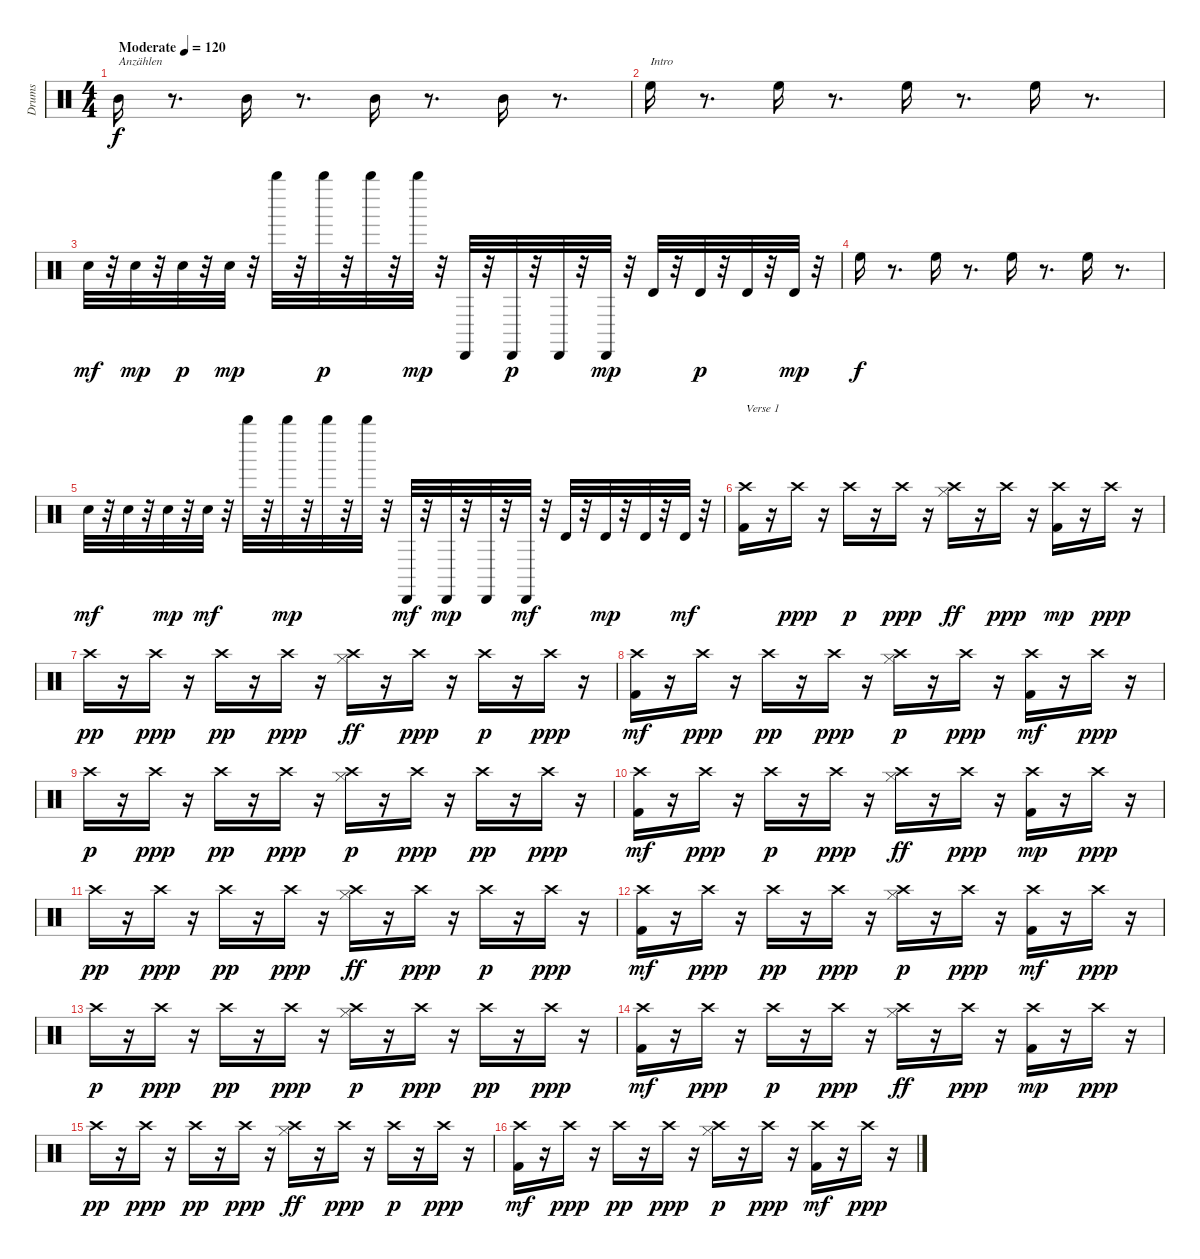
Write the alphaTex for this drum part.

\track ("Drums" "Drums") {instrument percussion}
\staff {score}
\articulation defaults
\ts (4 4)
\tempo (120 "Moderate")
\clef neutral
\ks c "Mid Tom (hit)".16{txt "Anzählen" dy f}
r.8{d} "Mid Tom (hit)".16 r.8{d} "Mid Tom (hit)".16 r.8{d} "Mid Tom (hit)".16 r.8{d} |
"High Floor Tom (hit)".16{txt "Intro"} r.8{d} "High Floor Tom (hit)".16 r.8{d} "High Floor Tom (hit)".16 r.8{d} "High Floor Tom (hit)".16 r.8{d} |
"Snare (hit) 2".32{dy mf} r.32 "Snare (hit) 2".32{dy mp} r.32 "Snare (hit) 2".32{dy p} r.32 "Snare (hit) 2".32{dy mp} r.32 "Whistle high (hit)".32 r.32 "Whistle high (hit)".32{dy p} r.32 "Whistle high (hit)".32 r.32 "Whistle high (hit)".32{dy mp} r.32 "Cabasa (hit)".32 r.32 "Cabasa (hit)".32{dy p} r.32 "Cabasa (hit)".32 r.32 "Cabasa (hit)".32{dy mp} r.32 "Timbale high (hit)".32 r.32 "Timbale high (hit)".32{dy p} r.32 "Timbale high (hit)".32 r.32 "Timbale high (hit)".32{dy mp} r.32 |
"High Floor Tom (hit)".16{dy f} r.8{d} "High Floor Tom (hit)".16 r.8{d} "High Floor Tom (hit)".16 r.8{d} "High Floor Tom (hit)".16 r.8{d} |
"Snare (hit) 2".32{dy mf} r.32 "Snare (hit) 2".32 r.32 "Snare (hit) 2".32{dy mp} r.32 "Snare (hit) 2".32{dy mf} r.32 "Whistle high (hit)".32 r.32 "Whistle high (hit)".32{dy mp} r.32 "Whistle high (hit)".32 r.32 "Whistle high (hit)".32 r.32 "Cabasa (hit)".32{dy mf} r.32 "Cabasa (hit)".32{dy mp} r.32 "Cabasa (hit)".32 r.32 "Cabasa (hit)".32{dy mf} r.32 "Timbale high (hit)".32 r.32 "Timbale high (hit)".32{dy mp} r.32 "Timbale high (hit)".32 r.32 "Timbale high (hit)".32{dy mf} r.32 |
("Crash high (hit)" "Kick (hit) 2").16{txt "Verse 1"} r.16 "Crash high (hit)".16{dy ppp} r.16 "Crash high (hit)".16{dy p} r.16 "Crash high (hit)".16{dy ppp} r.16 ("Crash high (hit)" "Hi-Hat (closed)").16{dy ff} r.16 "Crash high (hit)".16{dy ppp} r.16 ("Crash high (hit)" "Kick (hit) 2").16{dy mp} r.16 "Crash high (hit)".16{dy ppp} r.16 |
"Crash high (hit)".16{dy pp} r.16 "Crash high (hit)".16{dy ppp} r.16 "Crash high (hit)".16{dy pp} r.16 "Crash high (hit)".16{dy ppp} r.16 ("Crash high (hit)" "Hi-Hat (closed)").16{dy ff} r.16 "Crash high (hit)".16{dy ppp} r.16 "Crash high (hit)".16{dy p} r.16 "Crash high (hit)".16{dy ppp} r.16 |
("Crash high (hit)" "Kick (hit) 2").16{dy mf} r.16 "Crash high (hit)".16{dy ppp} r.16 "Crash high (hit)".16{dy pp} r.16 "Crash high (hit)".16{dy ppp} r.16 ("Hi-Hat (closed)" "Crash high (hit)").16{dy p} r.16 "Crash high (hit)".16{dy ppp} r.16 ("Crash high (hit)" "Kick (hit) 2").16{dy mf} r.16 "Crash high (hit)".16{dy ppp} r.16 |
"Crash high (hit)".16{dy p} r.16 "Crash high (hit)".16{dy ppp} r.16 "Crash high (hit)".16{dy pp} r.16 "Crash high (hit)".16{dy ppp} r.16 ("Hi-Hat (closed)" "Crash high (hit)").16{dy p} r.16 "Crash high (hit)".16{dy ppp} r.16 "Crash high (hit)".16{dy pp} r.16 "Crash high (hit)".16{dy ppp} r.16 |
("Crash high (hit)" "Kick (hit) 2").16{dy mf} r.16 "Crash high (hit)".16{dy ppp} r.16 "Crash high (hit)".16{dy p} r.16 "Crash high (hit)".16{dy ppp} r.16 ("Crash high (hit)" "Hi-Hat (closed)").16{dy ff} r.16 "Crash high (hit)".16{dy ppp} r.16 ("Crash high (hit)" "Kick (hit) 2").16{dy mp} r.16 "Crash high (hit)".16{dy ppp} r.16 |
"Crash high (hit)".16{dy pp} r.16 "Crash high (hit)".16{dy ppp} r.16 "Crash high (hit)".16{dy pp} r.16 "Crash high (hit)".16{dy ppp} r.16 ("Crash high (hit)" "Hi-Hat (closed)").16{dy ff} r.16 "Crash high (hit)".16{dy ppp} r.16 "Crash high (hit)".16{dy p} r.16 "Crash high (hit)".16{dy ppp} r.16 |
("Crash high (hit)" "Kick (hit) 2").16{dy mf} r.16 "Crash high (hit)".16{dy ppp} r.16 "Crash high (hit)".16{dy pp} r.16 "Crash high (hit)".16{dy ppp} r.16 ("Hi-Hat (closed)" "Crash high (hit)").16{dy p} r.16 "Crash high (hit)".16{dy ppp} r.16 ("Crash high (hit)" "Kick (hit) 2").16{dy mf} r.16 "Crash high (hit)".16{dy ppp} r.16 |
"Crash high (hit)".16{dy p} r.16 "Crash high (hit)".16{dy ppp} r.16 "Crash high (hit)".16{dy pp} r.16 "Crash high (hit)".16{dy ppp} r.16 ("Hi-Hat (closed)" "Crash high (hit)").16{dy p} r.16 "Crash high (hit)".16{dy ppp} r.16 "Crash high (hit)".16{dy pp} r.16 "Crash high (hit)".16{dy ppp} r.16 |
("Crash high (hit)" "Kick (hit) 2").16{dy mf} r.16 "Crash high (hit)".16{dy ppp} r.16 "Crash high (hit)".16{dy p} r.16 "Crash high (hit)".16{dy ppp} r.16 ("Crash high (hit)" "Hi-Hat (closed)").16{dy ff} r.16 "Crash high (hit)".16{dy ppp} r.16 ("Crash high (hit)" "Kick (hit) 2").16{dy mp} r.16 "Crash high (hit)".16{dy ppp} r.16 |
"Crash high (hit)".16{dy pp} r.16 "Crash high (hit)".16{dy ppp} r.16 "Crash high (hit)".16{dy pp} r.16 "Crash high (hit)".16{dy ppp} r.16 ("Crash high (hit)" "Hi-Hat (closed)").16{dy ff} r.16 "Crash high (hit)".16{dy ppp} r.16 "Crash high (hit)".16{dy p} r.16 "Crash high (hit)".16{dy ppp} r.16 |
("Crash high (hit)" "Kick (hit) 2").16{dy mf} r.16 "Crash high (hit)".16{dy ppp} r.16 "Crash high (hit)".16{dy pp} r.16 "Crash high (hit)".16{dy ppp} r.16 ("Hi-Hat (closed)" "Crash high (hit)").16{dy p} r.16 "Crash high (hit)".16{dy ppp} r.16 ("Crash high (hit)" "Kick (hit) 2").16{dy mf} r.16 "Crash high (hit)".16{dy ppp} r.16
